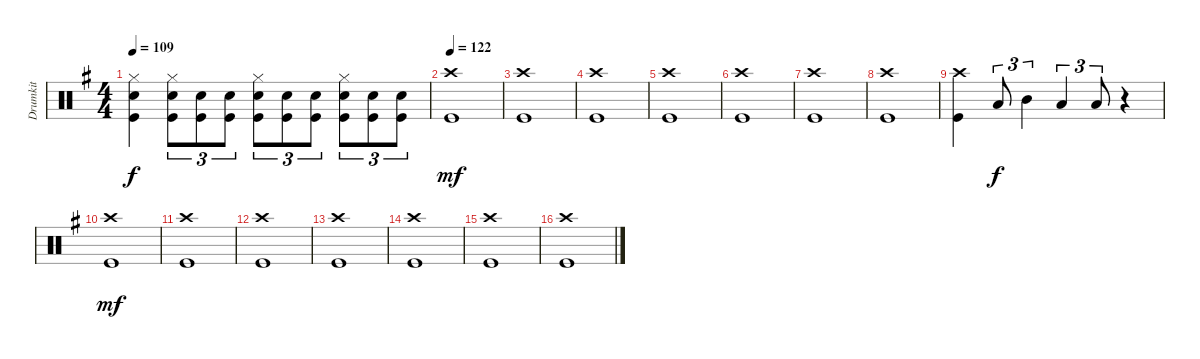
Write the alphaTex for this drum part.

\track ("Drumkit" "Drumkit") {instrument percussion}
\staff {score}
\articulation defaults
\ts (4 4)
\tempo 109
\clef neutral
\ks g
("Kick (hit)" "Snare (hit) 2" "Hi-Hat (closed)").4{dy f} ("Kick (hit)" "Snare (hit) 2" "Hi-Hat (closed)").8{tu (3 2)} ("Kick (hit)" "Snare (hit) 2").8{tu (3 2)} ("Kick (hit)" "Snare (hit) 2").8{tu (3 2)} ("Kick (hit)" "Snare (hit) 2" "Hi-Hat (closed)").8{tu (3 2)} ("Kick (hit)" "Snare (hit) 2").8{tu (3 2)} ("Kick (hit)" "Snare (hit) 2").8{tu (3 2)} ("Kick (hit)" "Snare (hit) 2" "Hi-Hat (closed)").8{tu (3 2)} ("Kick (hit)" "Snare (hit) 2").8{tu (3 2)} ("Kick (hit)" "Snare (hit) 2").8{tu (3 2)} |
\tempo 122
("Kick (hit)" "Crash high (hit)").1{dy mf} |
("Kick (hit)" "Crash high (hit)").1 |
("Kick (hit)" "Crash high (hit)").1 |
("Kick (hit)" "Crash high (hit)").1 |
("Kick (hit)" "Crash high (hit)").1 |
("Kick (hit)" "Crash high (hit)").1 |
("Kick (hit)" "Crash high (hit)").1 |
("Kick (hit)" "Crash high (hit)").4 "Low Floor Tom (hit)".8{tu (3 2) dy f} "Mid Tom (hit)".4{tu (3 2)} "Low Tom (hit)".4{tu (3 2)} "Low Floor Tom (hit)".8{tu (3 2)} r.4 |
("Kick (hit)" "Crash high (hit)").1{dy mf} |
("Kick (hit)" "Crash high (hit)").1 |
("Kick (hit)" "Crash high (hit)").1 |
("Kick (hit)" "Crash high (hit)").1 |
("Kick (hit)" "Crash high (hit)").1 |
("Kick (hit)" "Crash high (hit)").1 |
("Kick (hit)" "Crash high (hit)").1
